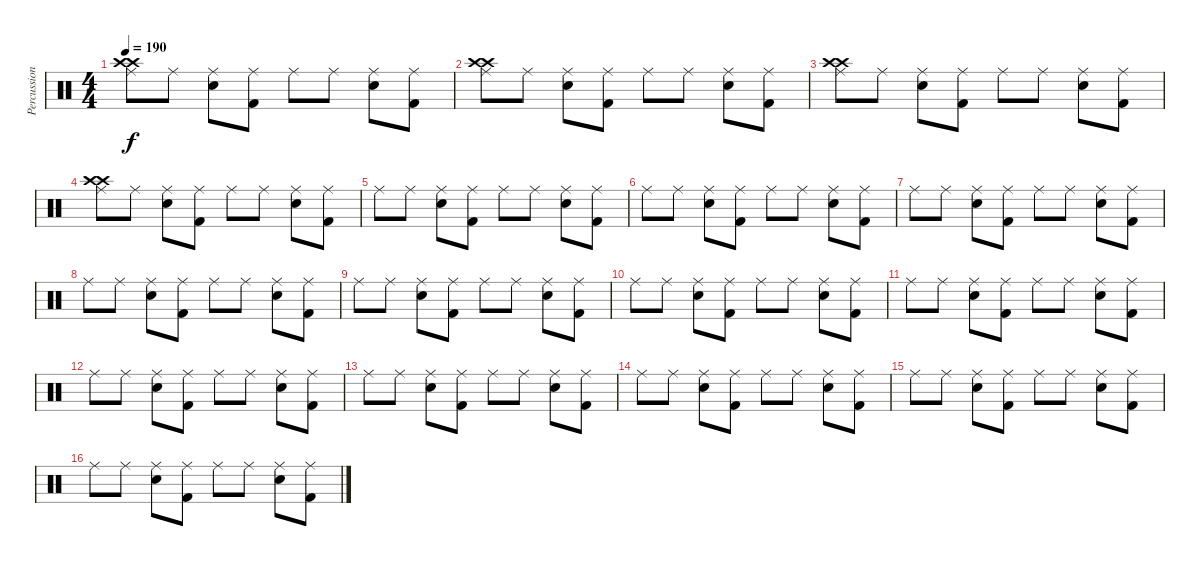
\track ("Percussion" "Percussion") {instrument percussion}
\staff {score}
\articulation defaults
\ts (4 4)
\tempo 190
\clef neutral
\ks c
("Ride (middle)" "Crash high (hit)" "Crash high (hit)").8{dy f} "Ride (middle)".8 ("Ride (middle)" "Snare (hit) 2").8 ("Ride (middle)" "Kick (hit) 2").8 "Ride (middle)".8 "Ride (middle)".8 ("Ride (middle)" "Snare (hit) 2").8 ("Ride (middle)" "Kick (hit) 2").8 |
("Ride (middle)" "Crash high (hit)" "Crash high (hit)").8 "Ride (middle)".8 ("Ride (middle)" "Snare (hit) 2").8 ("Ride (middle)" "Kick (hit) 2").8 "Ride (middle)".8 "Ride (middle)".8 ("Ride (middle)" "Snare (hit) 2").8 ("Ride (middle)" "Kick (hit) 2").8 |
("Ride (middle)" "Crash high (hit)" "Crash high (hit)").8 "Ride (middle)".8 ("Ride (middle)" "Snare (hit) 2").8 ("Ride (middle)" "Kick (hit) 2").8 "Ride (middle)".8 "Ride (middle)".8 ("Ride (middle)" "Snare (hit) 2").8 ("Ride (middle)" "Kick (hit) 2").8 |
("Ride (middle)" "Crash high (hit)" "Crash high (hit)").8 "Ride (middle)".8 ("Ride (middle)" "Snare (hit) 2").8 ("Ride (middle)" "Kick (hit) 2").8 "Ride (middle)".8 "Ride (middle)".8 ("Ride (middle)" "Snare (hit) 2").8 ("Ride (middle)" "Kick (hit) 2").8 |
"Ride (middle)".8 "Ride (middle)".8 ("Ride (middle)" "Snare (hit) 2").8 ("Ride (middle)" "Kick (hit) 2").8 "Ride (middle)".8 "Ride (middle)".8 ("Ride (middle)" "Snare (hit) 2").8 ("Ride (middle)" "Kick (hit) 2").8 |
"Ride (middle)".8 "Ride (middle)".8 ("Ride (middle)" "Snare (hit) 2").8 ("Ride (middle)" "Kick (hit) 2").8 "Ride (middle)".8 "Ride (middle)".8 ("Ride (middle)" "Snare (hit) 2").8 ("Ride (middle)" "Kick (hit) 2").8 |
"Ride (middle)".8 "Ride (middle)".8 ("Ride (middle)" "Snare (hit) 2").8 ("Ride (middle)" "Kick (hit) 2").8 "Ride (middle)".8 "Ride (middle)".8 ("Ride (middle)" "Snare (hit) 2").8 ("Ride (middle)" "Kick (hit) 2").8 |
"Ride (middle)".8 "Ride (middle)".8 ("Ride (middle)" "Snare (hit) 2").8 ("Ride (middle)" "Kick (hit) 2").8 "Ride (middle)".8 "Ride (middle)".8 ("Ride (middle)" "Snare (hit) 2").8 ("Ride (middle)" "Kick (hit) 2").8 |
"Ride (middle)".8 "Ride (middle)".8 ("Ride (middle)" "Snare (hit) 2").8 ("Ride (middle)" "Kick (hit) 2").8 "Ride (middle)".8 "Ride (middle)".8 ("Ride (middle)" "Snare (hit) 2").8 ("Ride (middle)" "Kick (hit) 2").8 |
"Ride (middle)".8 "Ride (middle)".8 ("Ride (middle)" "Snare (hit) 2").8 ("Ride (middle)" "Kick (hit) 2").8 "Ride (middle)".8 "Ride (middle)".8 ("Ride (middle)" "Snare (hit) 2").8 ("Ride (middle)" "Kick (hit) 2").8 |
"Ride (middle)".8 "Ride (middle)".8 ("Ride (middle)" "Snare (hit) 2").8 ("Ride (middle)" "Kick (hit) 2").8 "Ride (middle)".8 "Ride (middle)".8 ("Ride (middle)" "Snare (hit) 2").8 ("Ride (middle)" "Kick (hit) 2").8 |
"Ride (middle)".8 "Ride (middle)".8 ("Ride (middle)" "Snare (hit) 2").8 ("Ride (middle)" "Kick (hit) 2").8 "Ride (middle)".8 "Ride (middle)".8 ("Ride (middle)" "Snare (hit) 2").8 ("Ride (middle)" "Kick (hit) 2").8 |
"Ride (middle)".8 "Ride (middle)".8 ("Ride (middle)" "Snare (hit) 2").8 ("Ride (middle)" "Kick (hit) 2").8 "Ride (middle)".8 "Ride (middle)".8 ("Ride (middle)" "Snare (hit) 2").8 ("Ride (middle)" "Kick (hit) 2").8 |
"Ride (middle)".8 "Ride (middle)".8 ("Ride (middle)" "Snare (hit) 2").8 ("Ride (middle)" "Kick (hit) 2").8 "Ride (middle)".8 "Ride (middle)".8 ("Ride (middle)" "Snare (hit) 2").8 ("Ride (middle)" "Kick (hit) 2").8 |
"Ride (middle)".8 "Ride (middle)".8 ("Ride (middle)" "Snare (hit) 2").8 ("Ride (middle)" "Kick (hit) 2").8 "Ride (middle)".8 "Ride (middle)".8 ("Ride (middle)" "Snare (hit) 2").8 ("Ride (middle)" "Kick (hit) 2").8 |
"Ride (middle)".8 "Ride (middle)".8 ("Ride (middle)" "Snare (hit) 2").8 ("Ride (middle)" "Kick (hit) 2").8 "Ride (middle)".8 "Ride (middle)".8 ("Ride (middle)" "Snare (hit) 2").8 ("Ride (middle)" "Kick (hit) 2").8
